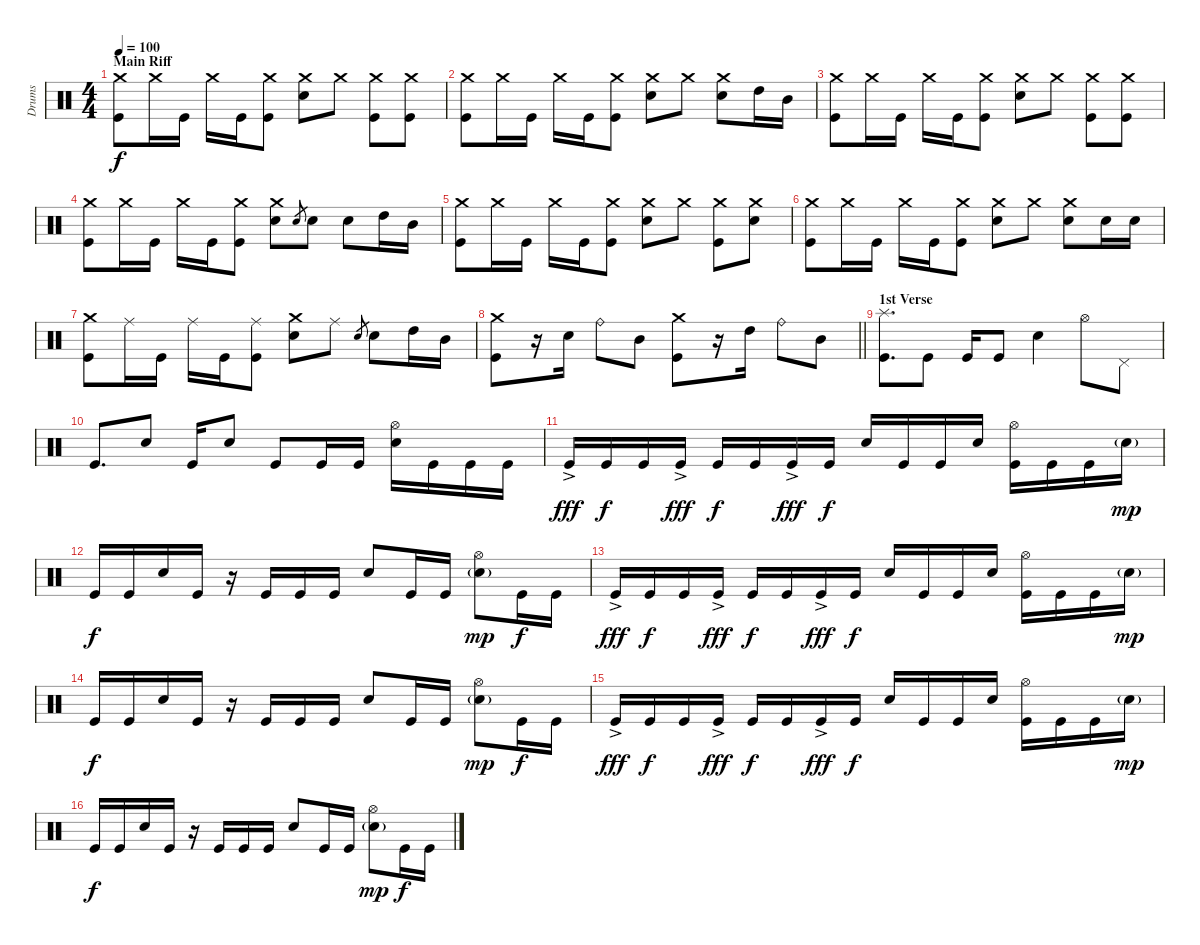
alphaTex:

\track ("Drums" "Drums") {instrument percussion}
\staff {score}
\articulation defaults
\ts (4 4)
\section ("" "Main Riff")
\tempo 100
\clef neutral
\ks c
("Crash medium (hit)" "Kick (hit)").8{dy f} "Crash medium (hit)".16 "Kick (hit)".16 "Crash medium (hit)".16 "Kick (hit)".16 ("Crash medium (hit)" "Kick (hit)").8 ("Crash medium (hit)" "Electric Snare (hit)").8 "Crash medium (hit)".8 ("Crash medium (hit)" "Kick (hit)").8 ("Crash medium (hit)" "Kick (hit)").8 |
("Crash medium (hit)" "Kick (hit)").8 "Crash medium (hit)".16 "Kick (hit)".16 "Crash medium (hit)".16 "Kick (hit)".16 ("Crash medium (hit)" "Kick (hit)").8 ("Crash medium (hit)" "Electric Snare (hit)").8 "Crash medium (hit)".8 ("Crash medium (hit)" "Electric Snare (hit)").8 "High Tom (hit)".16 "Mid Tom (hit)".16 |
("Crash medium (hit)" "Kick (hit)").8 "Crash medium (hit)".16 "Kick (hit)".16 "Crash medium (hit)".16 "Kick (hit)".16 ("Crash medium (hit)" "Kick (hit)").8 ("Crash medium (hit)" "Electric Snare (hit)").8 "Crash medium (hit)".8 ("Crash medium (hit)" "Kick (hit)").8 ("Crash medium (hit)" "Kick (hit)").8 |
("Crash medium (hit)" "Kick (hit)").8 "Crash medium (hit)".16 "Kick (hit)".16 "Crash medium (hit)".16 "Kick (hit)".16 ("Crash medium (hit)" "Kick (hit)").8 ("Crash medium (hit)" "Electric Snare (hit)").8 "Electric Snare (hit)".8{gr} "Electric Snare (hit)".8 "Electric Snare (hit)".8 "High Tom (hit)".16 "Mid Tom (hit)".16 |
("Crash medium (hit)" "Kick (hit)").8 "Crash medium (hit)".16 "Kick (hit)".16 "Crash medium (hit)".16 "Kick (hit)".16 ("Crash medium (hit)" "Kick (hit)").8 ("Crash medium (hit)" "Electric Snare (hit)").8 "Crash medium (hit)".8 ("Crash medium (hit)" "Kick (hit)").8 ("Crash medium (hit)" "Electric Snare (hit)").8 |
("Crash medium (hit)" "Kick (hit)").8 "Crash medium (hit)".16 "Kick (hit)".16 "Crash medium (hit)".16 "Kick (hit)".16 ("Crash medium (hit)" "Kick (hit)").8 ("Crash medium (hit)" "Electric Snare (hit)").8 "Crash medium (hit)".8 ("Crash medium (hit)" "Electric Snare (hit)").8 "Electric Snare (hit)".16 "Electric Snare (hit)".16 |
("Crash medium (hit)" "Kick (hit)").8 "Ride (middle)".16 "Kick (hit)".16 "Ride (middle)".16 "Kick (hit)".16 ("Ride (middle)" "Kick (hit)").8 ("Crash medium (hit)" "Electric Snare (hit)").8 "Ride (middle)".8 "Electric Snare (hit)".8{gr} "Electric Snare (hit)".8 "High Tom (hit)".16 "Mid Tom (hit)".16 |
\barLineRight lightlight
("Crash medium (hit)" "Kick (hit)").8 r.16 "Electric Snare (hit)".16 "Ride (bell)".8 "Mid Tom (hit)".8 ("Crash medium (hit)" "Kick (hit)").8 r.16 "High Tom (hit)".16 "Ride (bell)".8 "Mid Tom (hit)".8 |
\section ("" "1st Verse ")
("Splash (hit)" "Kick (hit)").8{d volume 6} "Kick (hit)".8 "Kick (hit)".16 "Kick (hit)".8 "Electric Snare (hit)".4 "Hi-Hat (open)".8 "Pedal Hi-Hat (hit)".8 |
"Kick (hit)".8{d} "Electric Snare (hit)".8 "Kick (hit)".16 "Electric Snare (hit)".8 "Kick (hit)".8 "Kick (hit)".16 "Kick (hit)".16 ("Hi-Hat (open)" "Electric Snare (hit)").16 "Kick (hit)".16 "Kick (hit)".16 "Kick (hit)".16 |
"Kick (hit)"{ac}.16{dy fff} "Kick (hit)".16{dy f} "Kick (hit)".16 "Kick (hit)"{ac}.16{dy fff} "Kick (hit)".16{dy f} "Kick (hit)".16 "Kick (hit)"{ac}.16{dy fff} "Kick (hit)".16{dy f} "Electric Snare (hit)".16 "Kick (hit)".16 "Kick (hit)".16 "Electric Snare (hit)".16 ("Hi-Hat (open)" "Kick (hit)").16 "Kick (hit)".16 "Kick (hit)".16 "Electric Snare (hit)"{g}.16{dy mp} |
"Kick (hit)".16{dy f} "Kick (hit)".16 "Electric Snare (hit)".16 "Kick (hit)".16 r.16 "Kick (hit)".16 "Kick (hit)".16 "Kick (hit)".16 "Electric Snare (hit)".8 "Kick (hit)".16 "Kick (hit)".16 ("Hi-Hat (open)" "Electric Snare (hit)"{g}).8{dy mp} "Kick (hit)".16{dy f} "Kick (hit)".16 |
"Kick (hit)"{ac}.16{dy fff} "Kick (hit)".16{dy f} "Kick (hit)".16 "Kick (hit)"{ac}.16{dy fff} "Kick (hit)".16{dy f} "Kick (hit)".16 "Kick (hit)"{ac}.16{dy fff} "Kick (hit)".16{dy f} "Electric Snare (hit)".16 "Kick (hit)".16 "Kick (hit)".16 "Electric Snare (hit)".16 ("Hi-Hat (open)" "Kick (hit)").16 "Kick (hit)".16 "Kick (hit)".16 "Electric Snare (hit)"{g}.16{dy mp} |
"Kick (hit)".16{dy f} "Kick (hit)".16 "Electric Snare (hit)".16 "Kick (hit)".16 r.16 "Kick (hit)".16 "Kick (hit)".16 "Kick (hit)".16 "Electric Snare (hit)".8 "Kick (hit)".16 "Kick (hit)".16 ("Hi-Hat (open)" "Electric Snare (hit)"{g}).8{dy mp} "Kick (hit)".16{dy f} "Kick (hit)".16 |
"Kick (hit)"{ac}.16{dy fff} "Kick (hit)".16{dy f} "Kick (hit)".16 "Kick (hit)"{ac}.16{dy fff} "Kick (hit)".16{dy f} "Kick (hit)".16 "Kick (hit)"{ac}.16{dy fff} "Kick (hit)".16{dy f} "Electric Snare (hit)".16 "Kick (hit)".16 "Kick (hit)".16 "Electric Snare (hit)".16 ("Hi-Hat (open)" "Kick (hit)").16 "Kick (hit)".16 "Kick (hit)".16 "Electric Snare (hit)"{g}.16{dy mp} |
"Kick (hit)".16{dy f} "Kick (hit)".16 "Electric Snare (hit)".16 "Kick (hit)".16 r.16 "Kick (hit)".16 "Kick (hit)".16 "Kick (hit)".16 "Electric Snare (hit)".8 "Kick (hit)".16 "Kick (hit)".16 ("Hi-Hat (open)" "Electric Snare (hit)"{g}).8{dy mp} "Kick (hit)".16{dy f} "Kick (hit)".16
